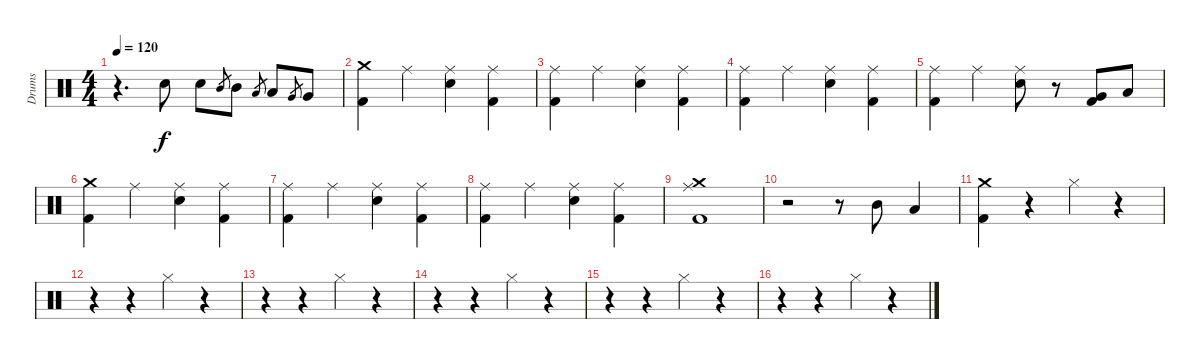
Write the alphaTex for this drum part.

\track ("Drums" "Drums") {instrument percussion}
\staff {score}
\articulation defaults
\ts (4 4)
\tempo 120
\clef neutral
\ks c
r.4{d dy f} "Electric Snare (hit)".8 "Electric Snare (hit)".8 "Mid Tom (hit)".8{gr} "Mid Tom (hit)".8 "Low Tom (hit)".8{gr} "Low Tom (hit)".8 "Very Low Tom (hit)".8{gr} "Very Low Tom (hit)".8 |
("Crash medium (hit)" "Kick (hit) 2").4 "Ride (middle)".4 ("Ride (middle)" "Electric Snare (hit)").4 ("Ride (middle)" "Kick (hit) 2").4 |
("Ride (middle)" "Kick (hit) 2").4 "Ride (middle)".4 ("Ride (middle)" "Electric Snare (hit)").4 ("Ride (middle)" "Kick (hit) 2").4 |
("Ride (middle)" "Kick (hit) 2").4 "Ride (middle)".4 ("Ride (middle)" "Electric Snare (hit)").4 ("Ride (middle)" "Kick (hit) 2").4 |
("Ride (middle)" "Kick (hit) 2").4 "Ride (middle)".4 ("Ride (middle)" "Electric Snare (hit)").8 r.8 ("Very Low Tom (hit)" "Kick (hit) 2").8 "Low Tom (hit)".8 |
("Crash medium (hit)" "Kick (hit) 2").4 "Ride (middle)".4 ("Ride (middle)" "Electric Snare (hit)").4 ("Ride (middle)" "Kick (hit) 2").4 |
("Ride (middle)" "Kick (hit) 2").4 "Ride (middle)".4 ("Ride (middle)" "Electric Snare (hit)").4 ("Ride (middle)" "Kick (hit) 2").4 |
("Ride (middle)" "Kick (hit) 2").4 "Ride (middle)".4 ("Ride (middle)" "Electric Snare (hit)").4 ("Ride (middle)" "Kick (hit) 2").4 |
("Ride (middle)" "Crash medium (hit)" "Kick (hit) 2").1 |
r.2 r.8 "Mid Tom (hit)".8 "Low Tom (hit)".4 |
("Crash medium (hit)" "Kick (hit) 2").4 r.4 "Hi-Hat (closed)".4 r.4 |
r.4 r.4 "Hi-Hat (closed)".4 r.4 |
r.4 r.4 "Hi-Hat (closed)".4 r.4 |
r.4 r.4 "Hi-Hat (closed)".4 r.4 |
r.4 r.4 "Hi-Hat (closed)".4 r.4 |
r.4 r.4 "Hi-Hat (closed)".4 r.4
